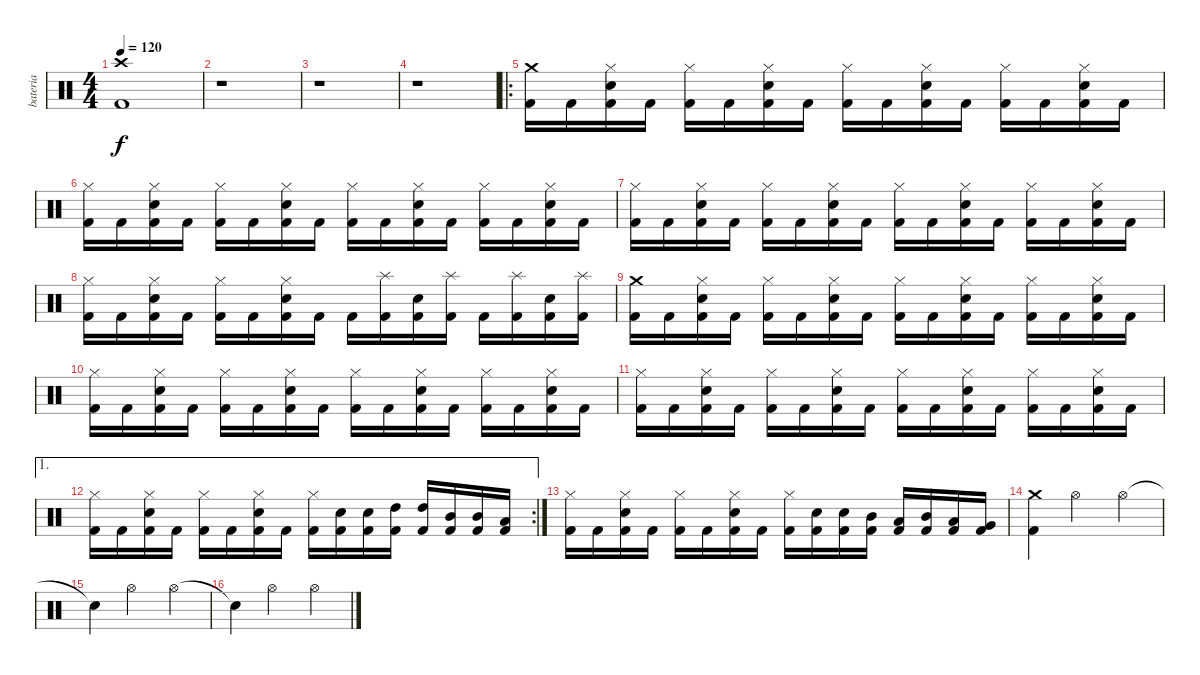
\track ("bateria" "bateria") {instrument percussion}
\staff {score}
\articulation defaults
\ts (4 4)
\tempo 120
\clef neutral
\ks c
("Crash high (hit)" "Kick (hit) 2").1{dy f} |
r.1 |
r.1 |
r.1 |
\ro
("Crash medium (hit)" "Kick (hit) 2").16 "Kick (hit) 2".16 ("Hi-Hat (closed)" "Electric Snare (hit)" "Kick (hit) 2").16 "Kick (hit) 2".16 ("Hi-Hat (closed)" "Kick (hit) 2").16 "Kick (hit) 2".16 ("Hi-Hat (closed)" "Electric Snare (hit)" "Kick (hit) 2").16 "Kick (hit) 2".16 ("Hi-Hat (closed)" "Kick (hit) 2").16 "Kick (hit) 2".16 ("Hi-Hat (closed)" "Electric Snare (hit)" "Kick (hit) 2").16 "Kick (hit) 2".16 ("Hi-Hat (closed)" "Kick (hit) 2").16 "Kick (hit) 2".16 ("Hi-Hat (closed)" "Electric Snare (hit)" "Kick (hit) 2").16 "Kick (hit) 2".16 |
("Hi-Hat (closed)" "Kick (hit) 2").16 "Kick (hit) 2".16 ("Hi-Hat (closed)" "Electric Snare (hit)" "Kick (hit) 2").16 "Kick (hit) 2".16 ("Hi-Hat (closed)" "Kick (hit) 2").16 "Kick (hit) 2".16 ("Hi-Hat (closed)" "Electric Snare (hit)" "Kick (hit) 2").16 "Kick (hit) 2".16 ("Hi-Hat (closed)" "Kick (hit) 2").16 "Kick (hit) 2".16 ("Hi-Hat (closed)" "Electric Snare (hit)" "Kick (hit) 2").16 "Kick (hit) 2".16 ("Hi-Hat (closed)" "Kick (hit) 2").16 "Kick (hit) 2".16 ("Hi-Hat (closed)" "Electric Snare (hit)" "Kick (hit) 2").16 "Kick (hit) 2".16 |
("Hi-Hat (closed)" "Kick (hit) 2").16 "Kick (hit) 2".16 ("Hi-Hat (closed)" "Electric Snare (hit)" "Kick (hit) 2").16 "Kick (hit) 2".16 ("Hi-Hat (closed)" "Kick (hit) 2").16 "Kick (hit) 2".16 ("Hi-Hat (closed)" "Electric Snare (hit)" "Kick (hit) 2").16 "Kick (hit) 2".16 ("Hi-Hat (closed)" "Kick (hit) 2").16 "Kick (hit) 2".16 ("Hi-Hat (closed)" "Electric Snare (hit)" "Kick (hit) 2").16 "Kick (hit) 2".16 ("Hi-Hat (closed)" "Kick (hit) 2").16 "Kick (hit) 2".16 ("Hi-Hat (closed)" "Electric Snare (hit)" "Kick (hit) 2").16 "Kick (hit) 2".16 |
("Hi-Hat (closed)" "Kick (hit) 2").16 "Kick (hit) 2".16 ("Hi-Hat (closed)" "Electric Snare (hit)" "Kick (hit) 2").16 "Kick (hit) 2".16 ("Hi-Hat (closed)" "Kick (hit) 2").16 "Kick (hit) 2".16 ("Hi-Hat (closed)" "Electric Snare (hit)" "Kick (hit) 2").16 "Kick (hit) 2".16 "Kick (hit) 2".16 ("Splash (hit)" "Kick (hit) 2").16 ("Electric Snare (hit)" "Kick (hit) 2").16 ("Splash (hit)" "Kick (hit) 2").16 "Kick (hit) 2".16 ("Splash (hit)" "Kick (hit) 2").16 ("Electric Snare (hit)" "Kick (hit) 2").16 ("Splash (hit)" "Kick (hit) 2").16 |
("Crash medium (hit)" "Kick (hit) 2").16 "Kick (hit) 2".16 ("Hi-Hat (closed)" "Electric Snare (hit)" "Kick (hit) 2").16 "Kick (hit) 2".16 ("Hi-Hat (closed)" "Kick (hit) 2").16 "Kick (hit) 2".16 ("Hi-Hat (closed)" "Electric Snare (hit)" "Kick (hit) 2").16 "Kick (hit) 2".16 ("Hi-Hat (closed)" "Kick (hit) 2").16 "Kick (hit) 2".16 ("Hi-Hat (closed)" "Electric Snare (hit)" "Kick (hit) 2").16 "Kick (hit) 2".16 ("Hi-Hat (closed)" "Kick (hit) 2").16 "Kick (hit) 2".16 ("Hi-Hat (closed)" "Electric Snare (hit)" "Kick (hit) 2").16 "Kick (hit) 2".16 |
("Hi-Hat (closed)" "Kick (hit) 2").16 "Kick (hit) 2".16 ("Hi-Hat (closed)" "Electric Snare (hit)" "Kick (hit) 2").16 "Kick (hit) 2".16 ("Hi-Hat (closed)" "Kick (hit) 2").16 "Kick (hit) 2".16 ("Hi-Hat (closed)" "Electric Snare (hit)" "Kick (hit) 2").16 "Kick (hit) 2".16 ("Hi-Hat (closed)" "Kick (hit) 2").16 "Kick (hit) 2".16 ("Hi-Hat (closed)" "Electric Snare (hit)" "Kick (hit) 2").16 "Kick (hit) 2".16 ("Hi-Hat (closed)" "Kick (hit) 2").16 "Kick (hit) 2".16 ("Hi-Hat (closed)" "Electric Snare (hit)" "Kick (hit) 2").16 "Kick (hit) 2".16 |
("Hi-Hat (closed)" "Kick (hit) 2").16 "Kick (hit) 2".16 ("Hi-Hat (closed)" "Electric Snare (hit)" "Kick (hit) 2").16 "Kick (hit) 2".16 ("Hi-Hat (closed)" "Kick (hit) 2").16 "Kick (hit) 2".16 ("Hi-Hat (closed)" "Electric Snare (hit)" "Kick (hit) 2").16 "Kick (hit) 2".16 ("Hi-Hat (closed)" "Kick (hit) 2").16 "Kick (hit) 2".16 ("Hi-Hat (closed)" "Electric Snare (hit)" "Kick (hit) 2").16 "Kick (hit) 2".16 ("Hi-Hat (closed)" "Kick (hit) 2").16 "Kick (hit) 2".16 ("Hi-Hat (closed)" "Electric Snare (hit)" "Kick (hit) 2").16 "Kick (hit) 2".16 |
\ae 1
\rc 2
("Hi-Hat (closed)" "Kick (hit) 2").16 "Kick (hit) 2".16 ("Hi-Hat (closed)" "Electric Snare (hit)" "Kick (hit) 2").16 "Kick (hit) 2".16 ("Hi-Hat (closed)" "Kick (hit) 2").16 "Kick (hit) 2".16 ("Hi-Hat (closed)" "Electric Snare (hit)" "Kick (hit) 2").16 "Kick (hit) 2".16 ("Hi-Hat (closed)" "Kick (hit) 2").16 ("Electric Snare (hit)" "Kick (hit) 2").16 ("Electric Snare (hit)" "Kick (hit) 2").16 ("High Tom (hit)" "Kick (hit) 2").16 ("High Tom (hit)" "Kick (hit) 2").16 ("Mid Tom (hit)" "Kick (hit) 2").16 ("Mid Tom (hit)" "Kick (hit) 2").16 ("Low Tom (hit)" "Kick (hit) 2").16 |
("Hi-Hat (closed)" "Kick (hit) 2").16 "Kick (hit) 2".16 ("Hi-Hat (closed)" "Electric Snare (hit)" "Kick (hit) 2").16 "Kick (hit) 2".16 ("Hi-Hat (closed)" "Kick (hit) 2").16 "Kick (hit) 2".16 ("Hi-Hat (closed)" "Electric Snare (hit)" "Kick (hit) 2").16 "Kick (hit) 2".16 ("Hi-Hat (closed)" "Kick (hit) 2").16 ("Electric Snare (hit)" "Kick (hit) 2").16 ("Electric Snare (hit)" "Kick (hit) 2").16 ("Mid Tom (hit)" "Kick (hit) 2").16 ("Low Tom (hit)" "Kick (hit) 2").16 ("Mid Tom (hit)" "Kick (hit) 2").16 ("Low Tom (hit)" "Kick (hit) 2").16 ("Very Low Tom (hit)" "Kick (hit) 2").16 |
("Crash medium (hit)" "Kick (hit) 2").4 "Hi-Hat (open)".2 "Hi-Hat (open)".4 |
"Snare (hit)"{t}.4 "Hi-Hat (open)".2 "Hi-Hat (open)".4 |
"Snare (hit)"{t}.4 "Hi-Hat (open)".2 "Hi-Hat (open)".4
